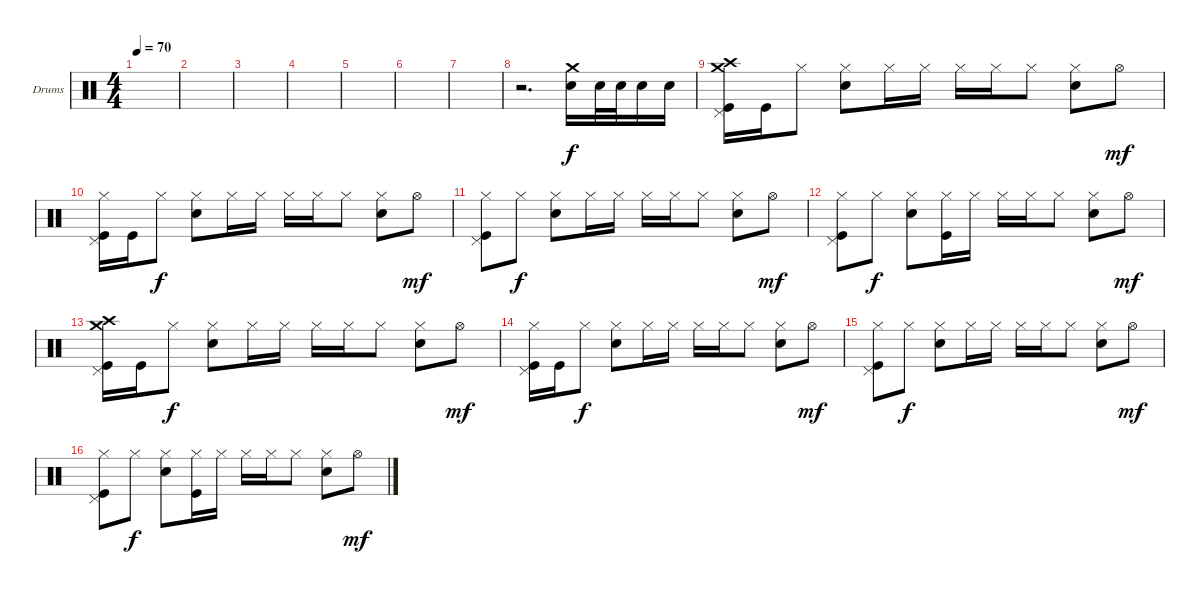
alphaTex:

\defaultSystemsLayout 4
\bracketExtendMode groupsimilarinstruments
\firstSystemTrackNameOrientation horizontal
\otherSystemsTrackNameOrientation horizontal
\track ("Drumkit" "Drums") {instrument percussion}
\staff {score}
\articulation defaults
\ts (4 4)
\tempo 70
\clef neutral
\scale
0.472222
\ks c
|
\scale
0.263889 |
\scale
0.263889 |
\scale
0.333333 |
\scale
0.333333 |
\scale
0.333333 |
|
r.2{d} ("Snare (hit) 2" "Crash medium (hit)").16 "Snare (hit) 2".32 "Snare (hit) 2".32 "Snare (hit) 2".16 "Snare (hit) 2".16 |
("Pedal Hi-Hat (hit)" "Kick (hit)" "Crash medium (hit)" "Crash high (hit)").16 "Kick (hit)".16 "Hi-Hat (closed)".8{dy f} ("Snare (hit) 2" "Hi-Hat (closed)").8 "Hi-Hat (closed)".16 "Hi-Hat (closed)".16 "Hi-Hat (closed)".16 "Hi-Hat (closed)".16 "Hi-Hat (closed)".8 ("Snare (hit) 2" "Hi-Hat (closed)").8 "Hi-Hat (open)".8{dy mf} |
("Pedal Hi-Hat (hit)" "Kick (hit)" "Hi-Hat (closed)").16 "Kick (hit)".16 "Hi-Hat (closed)".8{dy f} ("Snare (hit) 2" "Hi-Hat (closed)").8 "Hi-Hat (closed)".16 "Hi-Hat (closed)".16 "Hi-Hat (closed)".16 "Hi-Hat (closed)".16 "Hi-Hat (closed)".8 ("Snare (hit) 2" "Hi-Hat (closed)").8 "Hi-Hat (open)".8{dy mf} |
("Pedal Hi-Hat (hit)" "Kick (hit)" "Hi-Hat (closed)").8 "Hi-Hat (closed)".8{dy f} ("Snare (hit) 2" "Hi-Hat (closed)").8 "Hi-Hat (closed)".16 "Hi-Hat (closed)".16 "Hi-Hat (closed)".16 "Hi-Hat (closed)".16 "Hi-Hat (closed)".8 ("Snare (hit) 2" "Hi-Hat (closed)").8 "Hi-Hat (open)".8{dy mf} |
("Pedal Hi-Hat (hit)" "Kick (hit)" "Hi-Hat (closed)").8 "Hi-Hat (closed)".8{dy f} ("Snare (hit) 2" "Hi-Hat (closed)").8 ("Kick (hit)" "Hi-Hat (closed)").16 "Hi-Hat (closed)".16 "Hi-Hat (closed)".16 "Hi-Hat (closed)".16 "Hi-Hat (closed)".8 ("Snare (hit) 2" "Hi-Hat (closed)").8 "Hi-Hat (open)".8{dy mf} |
("Pedal Hi-Hat (hit)" "Kick (hit)" "Crash medium (hit)" "Crash high (hit)").16 "Kick (hit)".16 "Hi-Hat (closed)".8{dy f} ("Snare (hit) 2" "Hi-Hat (closed)").8 "Hi-Hat (closed)".16 "Hi-Hat (closed)".16 "Hi-Hat (closed)".16 "Hi-Hat (closed)".16 "Hi-Hat (closed)".8 ("Snare (hit) 2" "Hi-Hat (closed)").8 "Hi-Hat (open)".8{dy mf} |
("Pedal Hi-Hat (hit)" "Kick (hit)" "Hi-Hat (closed)").16 "Kick (hit)".16 "Hi-Hat (closed)".8{dy f} ("Snare (hit) 2" "Hi-Hat (closed)").8 "Hi-Hat (closed)".16 "Hi-Hat (closed)".16 "Hi-Hat (closed)".16 "Hi-Hat (closed)".16 "Hi-Hat (closed)".8 ("Snare (hit) 2" "Hi-Hat (closed)").8 "Hi-Hat (open)".8{dy mf} |
("Pedal Hi-Hat (hit)" "Kick (hit)" "Hi-Hat (closed)").8 "Hi-Hat (closed)".8{dy f} ("Snare (hit) 2" "Hi-Hat (closed)").8 "Hi-Hat (closed)".16 "Hi-Hat (closed)".16 "Hi-Hat (closed)".16 "Hi-Hat (closed)".16 "Hi-Hat (closed)".8 ("Snare (hit) 2" "Hi-Hat (closed)").8 "Hi-Hat (open)".8{dy mf} |
("Pedal Hi-Hat (hit)" "Kick (hit)" "Hi-Hat (closed)").8 "Hi-Hat (closed)".8{dy f} ("Snare (hit) 2" "Hi-Hat (closed)").8 ("Kick (hit)" "Hi-Hat (closed)").16 "Hi-Hat (closed)".16 "Hi-Hat (closed)".16 "Hi-Hat (closed)".16 "Hi-Hat (closed)".8 ("Snare (hit) 2" "Hi-Hat (closed)").8 "Hi-Hat (open)".8{dy mf}
